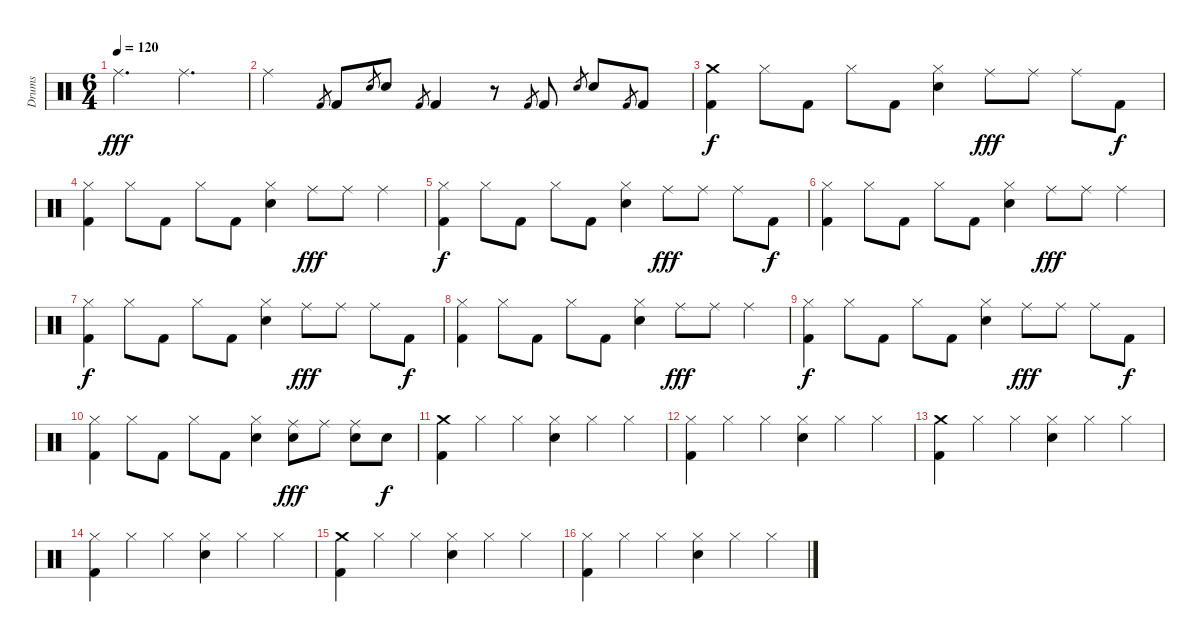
\track ("Drums" "Drums") {instrument percussion}
\staff {score}
\articulation defaults
\ts (6 4)
\tempo 120
\clef neutral
\ks c "Ride (middle)".2{d dy fff} "Ride (middle)".2{d}
|
"Ride (middle)".2 "Kick (hit) 2".8{gr} "Kick (hit) 2".8 "Snare (hit) 2".8{gr} "Snare (hit) 2".8 "Kick (hit) 2".8{gr} "Kick (hit) 2".4 r.8 "Kick (hit) 2".8{gr} "Kick (hit) 2".8 "Snare (hit) 2".8{gr} "Snare (hit) 2".8 "Kick (hit) 2".8{gr} "Kick (hit) 2".8 |
("Crash medium (hit)" "Kick (hit) 2").4{dy f} "Hi-Hat (closed)".8 "Kick (hit) 2".8 "Hi-Hat (closed)".8 "Kick (hit) 2".8 ("Hi-Hat (closed)" "Electric Snare (hit)").4 "Ride (middle)".8{dy fff} "Ride (middle)".8 "Ride (middle)".8 "Kick (hit) 2".8{dy f} |
("Hi-Hat (closed)" "Kick (hit) 2").4 "Hi-Hat (closed)".8 "Kick (hit) 2".8 "Hi-Hat (closed)".8 "Kick (hit) 2".8 ("Hi-Hat (closed)" "Electric Snare (hit)").4 "Ride (middle)".8{dy fff} "Ride (middle)".8 "Ride (middle)".4 |
("Hi-Hat (closed)" "Kick (hit) 2").4{dy f} "Hi-Hat (closed)".8 "Kick (hit) 2".8 "Hi-Hat (closed)".8 "Kick (hit) 2".8 ("Hi-Hat (closed)" "Electric Snare (hit)").4 "Ride (middle)".8{dy fff} "Ride (middle)".8 "Ride (middle)".8 "Kick (hit) 2".8{dy f} |
("Hi-Hat (closed)" "Kick (hit) 2").4 "Hi-Hat (closed)".8 "Kick (hit) 2".8 "Hi-Hat (closed)".8 "Kick (hit) 2".8 ("Hi-Hat (closed)" "Electric Snare (hit)").4 "Ride (middle)".8{dy fff} "Ride (middle)".8 "Ride (middle)".4 |
("Hi-Hat (closed)" "Kick (hit) 2").4{dy f} "Hi-Hat (closed)".8 "Kick (hit) 2".8 "Hi-Hat (closed)".8 "Kick (hit) 2".8 ("Hi-Hat (closed)" "Electric Snare (hit)").4 "Ride (middle)".8{dy fff} "Ride (middle)".8 "Ride (middle)".8 "Kick (hit) 2".8{dy f} |
("Hi-Hat (closed)" "Kick (hit) 2").4 "Hi-Hat (closed)".8 "Kick (hit) 2".8 "Hi-Hat (closed)".8 "Kick (hit) 2".8 ("Hi-Hat (closed)" "Electric Snare (hit)").4 "Ride (middle)".8{dy fff} "Ride (middle)".8 "Ride (middle)".4 |
("Hi-Hat (closed)" "Kick (hit) 2").4{dy f} "Hi-Hat (closed)".8 "Kick (hit) 2".8 "Hi-Hat (closed)".8 "Kick (hit) 2".8 ("Hi-Hat (closed)" "Electric Snare (hit)").4 "Ride (middle)".8{dy fff} "Ride (middle)".8 "Ride (middle)".8 "Kick (hit) 2".8{dy f} |
("Hi-Hat (closed)" "Kick (hit) 2").4 "Hi-Hat (closed)".8 "Kick (hit) 2".8 "Hi-Hat (closed)".8 "Kick (hit) 2".8 ("Hi-Hat (closed)" "Electric Snare (hit)").4 ("Ride (middle)" "Snare (hit) 2").8{dy fff} "Ride (middle)".8 ("Ride (middle)" "Snare (hit) 2").8 "Snare (hit) 2".8{dy f} |
("Crash medium (hit)" "Kick (hit) 2").4 "Hi-Hat (closed)".4 "Hi-Hat (closed)".4 ("Hi-Hat (closed)" "Electric Snare (hit)").4 "Hi-Hat (closed)".4 "Hi-Hat (closed)".4 |
("Hi-Hat (closed)" "Kick (hit) 2").4 "Hi-Hat (closed)".4 "Hi-Hat (closed)".4 ("Hi-Hat (closed)" "Electric Snare (hit)").4 "Hi-Hat (closed)".4 "Hi-Hat (closed)".4 |
("Crash medium (hit)" "Kick (hit) 2").4 "Hi-Hat (closed)".4 "Hi-Hat (closed)".4 ("Hi-Hat (closed)" "Electric Snare (hit)").4 "Hi-Hat (closed)".4 "Hi-Hat (closed)".4 |
("Hi-Hat (closed)" "Kick (hit) 2").4 "Hi-Hat (closed)".4 "Hi-Hat (closed)".4 ("Hi-Hat (closed)" "Electric Snare (hit)").4 "Hi-Hat (closed)".4 "Hi-Hat (closed)".4 |
("Crash medium (hit)" "Kick (hit) 2").4 "Hi-Hat (closed)".4 "Hi-Hat (closed)".4 ("Hi-Hat (closed)" "Electric Snare (hit)").4 "Hi-Hat (closed)".4 "Hi-Hat (closed)".4 |
("Hi-Hat (closed)" "Kick (hit) 2").4 "Hi-Hat (closed)".4 "Hi-Hat (closed)".4 ("Hi-Hat (closed)" "Electric Snare (hit)").4 "Hi-Hat (closed)".4 "Hi-Hat (closed)".4
